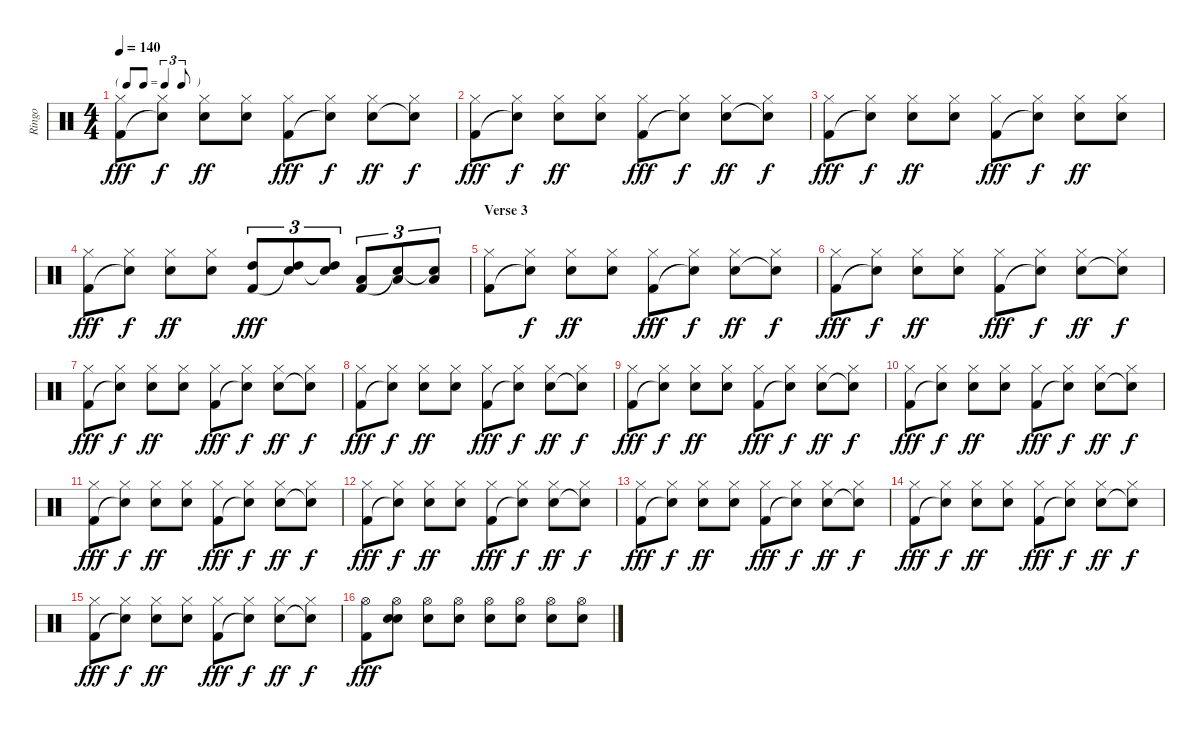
\track ("Ringo" "Ringo") {instrument percussion}
\staff {score}
\articulation defaults
\ts (4 4)
\tf triplet8th
\tempo 140
\clef neutral
\ks c
("Hi-Hat (closed)" "Kick (hit) 2").8{dy fff} ("Hi-Hat (closed)" "Snare (hit)"{t}).8{dy f} ("Hi-Hat (closed)" "Electric Snare (hit)").8{dy ff} ("Hi-Hat (closed)" "Electric Snare (hit)").8 ("Hi-Hat (closed)" "Kick (hit) 2").8{dy fff} ("Hi-Hat (closed)" "Snare (hit)"{t}).8{dy f} ("Hi-Hat (closed)" "Electric Snare (hit)").8{dy ff} ("Hi-Hat (closed)" "Snare (hit)"{t}).8{dy f} |
("Hi-Hat (closed)" "Kick (hit) 2").8{dy fff} ("Hi-Hat (closed)" "Snare (hit)"{t}).8{dy f} ("Hi-Hat (closed)" "Electric Snare (hit)").8{dy ff} ("Hi-Hat (closed)" "Electric Snare (hit)").8 ("Hi-Hat (closed)" "Kick (hit) 2").8{dy fff} ("Hi-Hat (closed)" "Snare (hit)"{t}).8{dy f} ("Hi-Hat (closed)" "Electric Snare (hit)").8{dy ff} ("Hi-Hat (closed)" "Snare (hit)"{t}).8{dy f} |
("Hi-Hat (closed)" "Kick (hit) 2").8{dy fff} ("Hi-Hat (closed)" "Snare (hit)"{t}).8{dy f} ("Hi-Hat (closed)" "Electric Snare (hit)").8{dy ff} ("Hi-Hat (closed)" "Electric Snare (hit)").8 ("Hi-Hat (closed)" "Kick (hit) 2").8{dy fff} ("Hi-Hat (closed)" "Snare (hit)"{t}).8{dy f} ("Hi-Hat (closed)" "Electric Snare (hit)").8{dy ff} ("Hi-Hat (closed)" "Electric Snare (hit)").8 |
("Hi-Hat (closed)" "Kick (hit) 2").8{dy fff} ("Hi-Hat (closed)" "Snare (hit)"{t}).8{dy f} ("Hi-Hat (closed)" "Electric Snare (hit)").8{dy ff} ("Hi-Hat (closed)" "Electric Snare (hit)").8 ("High Tom (hit)" "Kick (hit) 2").8{tu (3 2) dy fff} ("High Tom (hit)" "Snare (hit)"{t}).8{tu (3 2)} ("High Tom (hit)" "Snare (hit)"{t}).8{tu (3 2)} ("Low Tom (hit)" "Kick (hit) 2").8{tu (3 2)} ("Low Tom (hit)" "Snare (hit)"{t}).8{tu (3 2)} ("Low Tom (hit)" "Snare (hit)"{t}).8{tu (3 2)} |
\section ("" "Verse 3")
("Hi-Hat (closed)" "Kick (hit) 2").8 ("Hi-Hat (closed)" "Snare (hit)"{t}).8{dy f} ("Hi-Hat (closed)" "Electric Snare (hit)").8{dy ff} ("Hi-Hat (closed)" "Electric Snare (hit)").8 ("Hi-Hat (closed)" "Kick (hit) 2").8{dy fff} ("Hi-Hat (closed)" "Snare (hit)"{t}).8{dy f} ("Hi-Hat (closed)" "Electric Snare (hit)").8{dy ff} ("Hi-Hat (closed)" "Snare (hit)"{t}).8{dy f} |
("Hi-Hat (closed)" "Kick (hit) 2").8{dy fff} ("Hi-Hat (closed)" "Snare (hit)"{t}).8{dy f} ("Hi-Hat (closed)" "Electric Snare (hit)").8{dy ff} ("Hi-Hat (closed)" "Electric Snare (hit)").8 ("Hi-Hat (closed)" "Kick (hit) 2").8{dy fff} ("Hi-Hat (closed)" "Snare (hit)"{t}).8{dy f} ("Hi-Hat (closed)" "Electric Snare (hit)").8{dy ff} ("Hi-Hat (closed)" "Snare (hit)"{t}).8{dy f} |
("Hi-Hat (closed)" "Kick (hit) 2").8{dy fff} ("Hi-Hat (closed)" "Snare (hit)"{t}).8{dy f} ("Hi-Hat (closed)" "Electric Snare (hit)").8{dy ff} ("Hi-Hat (closed)" "Electric Snare (hit)").8 ("Hi-Hat (closed)" "Kick (hit) 2").8{dy fff} ("Hi-Hat (closed)" "Snare (hit)"{t}).8{dy f} ("Hi-Hat (closed)" "Electric Snare (hit)").8{dy ff} ("Hi-Hat (closed)" "Snare (hit)"{t}).8{dy f} |
("Hi-Hat (closed)" "Kick (hit) 2").8{dy fff} ("Hi-Hat (closed)" "Snare (hit)"{t}).8{dy f} ("Hi-Hat (closed)" "Electric Snare (hit)").8{dy ff} ("Hi-Hat (closed)" "Electric Snare (hit)").8 ("Hi-Hat (closed)" "Kick (hit) 2").8{dy fff} ("Hi-Hat (closed)" "Snare (hit)"{t}).8{dy f} ("Hi-Hat (closed)" "Electric Snare (hit)").8{dy ff} ("Hi-Hat (closed)" "Snare (hit)"{t}).8{dy f} |
("Hi-Hat (closed)" "Kick (hit) 2").8{dy fff} ("Hi-Hat (closed)" "Snare (hit)"{t}).8{dy f} ("Hi-Hat (closed)" "Electric Snare (hit)").8{dy ff} ("Hi-Hat (closed)" "Electric Snare (hit)").8 ("Hi-Hat (closed)" "Kick (hit) 2").8{dy fff} ("Hi-Hat (closed)" "Snare (hit)"{t}).8{dy f} ("Hi-Hat (closed)" "Electric Snare (hit)").8{dy ff} ("Hi-Hat (closed)" "Snare (hit)"{t}).8{dy f} |
("Hi-Hat (closed)" "Kick (hit) 2").8{dy fff} ("Hi-Hat (closed)" "Snare (hit)"{t}).8{dy f} ("Hi-Hat (closed)" "Electric Snare (hit)").8{dy ff} ("Hi-Hat (closed)" "Electric Snare (hit)").8 ("Hi-Hat (closed)" "Kick (hit) 2").8{dy fff} ("Hi-Hat (closed)" "Snare (hit)"{t}).8{dy f} ("Hi-Hat (closed)" "Electric Snare (hit)").8{dy ff} ("Hi-Hat (closed)" "Snare (hit)"{t}).8{dy f} |
("Hi-Hat (closed)" "Kick (hit) 2").8{dy fff} ("Hi-Hat (closed)" "Snare (hit)"{t}).8{dy f} ("Hi-Hat (closed)" "Electric Snare (hit)").8{dy ff} ("Hi-Hat (closed)" "Electric Snare (hit)").8 ("Hi-Hat (closed)" "Kick (hit) 2").8{dy fff} ("Hi-Hat (closed)" "Snare (hit)"{t}).8{dy f} ("Hi-Hat (closed)" "Electric Snare (hit)").8{dy ff} ("Hi-Hat (closed)" "Snare (hit)"{t}).8{dy f} |
("Hi-Hat (closed)" "Kick (hit) 2").8{dy fff} ("Hi-Hat (closed)" "Snare (hit)"{t}).8{dy f} ("Hi-Hat (closed)" "Electric Snare (hit)").8{dy ff} ("Hi-Hat (closed)" "Electric Snare (hit)").8 ("Hi-Hat (closed)" "Kick (hit) 2").8{dy fff} ("Hi-Hat (closed)" "Snare (hit)"{t}).8{dy f} ("Hi-Hat (closed)" "Electric Snare (hit)").8{dy ff} ("Hi-Hat (closed)" "Snare (hit)"{t}).8{dy f} |
("Hi-Hat (closed)" "Kick (hit) 2").8{dy fff} ("Hi-Hat (closed)" "Snare (hit)"{t}).8{dy f} ("Hi-Hat (closed)" "Electric Snare (hit)").8{dy ff} ("Hi-Hat (closed)" "Electric Snare (hit)").8 ("Hi-Hat (closed)" "Kick (hit) 2").8{dy fff} ("Hi-Hat (closed)" "Snare (hit)"{t}).8{dy f} ("Hi-Hat (closed)" "Electric Snare (hit)").8{dy ff} ("Hi-Hat (closed)" "Snare (hit)"{t}).8{dy f} |
("Hi-Hat (closed)" "Kick (hit) 2").8{dy fff} ("Hi-Hat (closed)" "Snare (hit)"{t}).8{dy f} ("Hi-Hat (closed)" "Electric Snare (hit)").8{dy ff} ("Hi-Hat (closed)" "Electric Snare (hit)").8 ("Hi-Hat (closed)" "Kick (hit) 2").8{dy fff} ("Hi-Hat (closed)" "Snare (hit)"{t}).8{dy f} ("Hi-Hat (closed)" "Electric Snare (hit)").8{dy ff} ("Hi-Hat (closed)" "Snare (hit)"{t}).8{dy f} |
("Hi-Hat (closed)" "Kick (hit) 2").8{dy fff} ("Hi-Hat (closed)" "Snare (hit)"{t}).8{dy f} ("Hi-Hat (closed)" "Electric Snare (hit)").8{dy ff} ("Hi-Hat (closed)" "Electric Snare (hit)").8 ("Hi-Hat (closed)" "Kick (hit) 2").8{dy fff} ("Hi-Hat (closed)" "Snare (hit)"{t}).8{dy f} ("Hi-Hat (closed)" "Electric Snare (hit)").8{dy ff} ("Hi-Hat (closed)" "Snare (hit)"{t}).8{dy f} |
("Hi-Hat (open)" "Kick (hit) 2").8{dy fff} ("Hi-Hat (open)" "Electric Snare (hit)" "Snare (hit)").8 ("Hi-Hat (open)" "Electric Snare (hit)").8 ("Hi-Hat (open)" "Electric Snare (hit)").8 ("Hi-Hat (open)" "Electric Snare (hit)").8 ("Hi-Hat (open)" "Electric Snare (hit)").8 ("Hi-Hat (open)" "Electric Snare (hit)").8 ("Hi-Hat (open)" "Electric Snare (hit)").8
